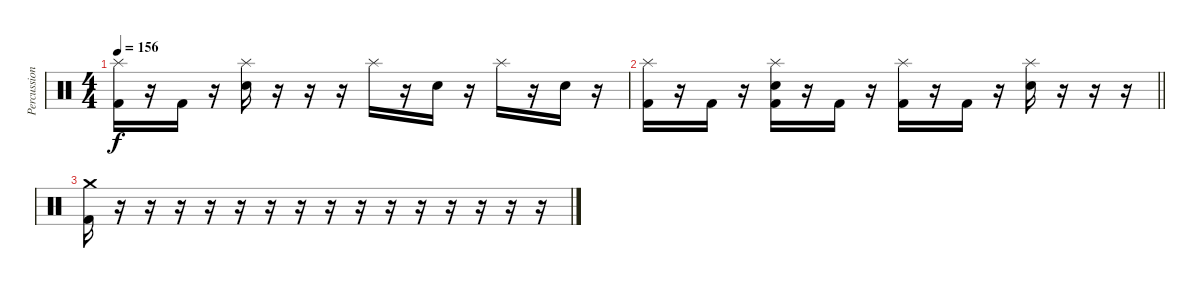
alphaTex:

\track ("Percussion" "Percussion") {instrument percussion}
\staff {score}
\articulation defaults
\ts (4 4)
\tempo 156
\clef neutral
\ks c
("Splash (hit)" "Kick (hit) 2").16{dy f} r.16 "Kick (hit) 2".16 r.16 ("Splash (hit)" "Electric Snare (hit)").16 r.16 r.16 r.16 "Splash (hit)".16 r.16 "Electric Snare (hit)".16 r.16 "Splash (hit)".16 r.16 "Electric Snare (hit)".16 r.16 |
\barLineRight lightlight
("Splash (hit)" "Kick (hit) 2").16 r.16 "Kick (hit) 2".16 r.16 ("Splash (hit)" "Electric Snare (hit)" "Kick (hit) 2").16 r.16 "Kick (hit) 2".16 r.16 ("Splash (hit)" "Kick (hit) 2").16 r.16 "Kick (hit) 2".16 r.16 ("Splash (hit)" "Electric Snare (hit)").16 r.16 r.16 r.16 |
("Crash medium (hit)" "Kick (hit) 2").16 r.16 r.16{volume 2} r.16 r.16 r.16 r.16 r.16 r.16 r.16 r.16 r.16 r.16 r.16 r.16 r.16
